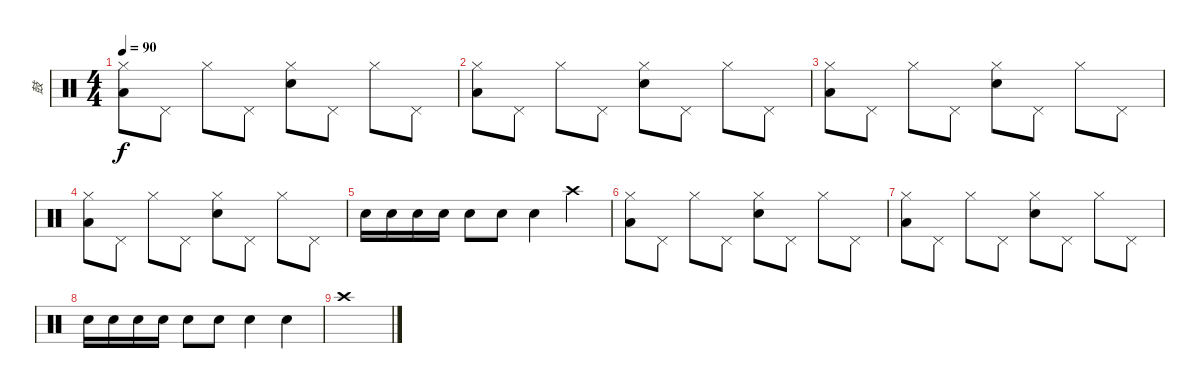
\track ("鼓" "鼓") {instrument percussion}
\staff {score}
\articulation defaults
\ts (4 4)
\tempo 90
\clef neutral
\ks c
("Hi-Hat (closed)" "Low Floor Tom (hit)").8{dy f} "Pedal Hi-Hat (hit)".8 "Hi-Hat (closed)".8 "Pedal Hi-Hat (hit)".8 ("Hi-Hat (closed)" "Electric Snare (hit)").8 "Pedal Hi-Hat (hit)".8 "Hi-Hat (closed)".8 "Pedal Hi-Hat (hit)".8 |
("Hi-Hat (closed)" "Low Floor Tom (hit)").8 "Pedal Hi-Hat (hit)".8 "Hi-Hat (closed)".8 "Pedal Hi-Hat (hit)".8 ("Hi-Hat (closed)" "Electric Snare (hit)").8 "Pedal Hi-Hat (hit)".8 "Hi-Hat (closed)".8 "Pedal Hi-Hat (hit)".8 |
("Hi-Hat (closed)" "Low Floor Tom (hit)").8 "Pedal Hi-Hat (hit)".8 "Hi-Hat (closed)".8 "Pedal Hi-Hat (hit)".8 ("Hi-Hat (closed)" "Electric Snare (hit)").8 "Pedal Hi-Hat (hit)".8 "Hi-Hat (closed)".8 "Pedal Hi-Hat (hit)".8 |
("Hi-Hat (closed)" "Low Floor Tom (hit)").8 "Pedal Hi-Hat (hit)".8 "Hi-Hat (closed)".8 "Pedal Hi-Hat (hit)".8 ("Hi-Hat (closed)" "Electric Snare (hit)").8 "Pedal Hi-Hat (hit)".8 "Hi-Hat (closed)".8 "Pedal Hi-Hat (hit)".8 |
"Electric Snare (hit)".16 "Electric Snare (hit)".16 "Electric Snare (hit)".16 "Electric Snare (hit)".16 "Electric Snare (hit)".8 "Electric Snare (hit)".8 "Electric Snare (hit)".4 "Crash high (hit)".4 |
("Hi-Hat (closed)" "Low Floor Tom (hit)").8 "Pedal Hi-Hat (hit)".8 "Hi-Hat (closed)".8 "Pedal Hi-Hat (hit)".8 ("Hi-Hat (closed)" "Electric Snare (hit)").8 "Pedal Hi-Hat (hit)".8 "Hi-Hat (closed)".8 "Pedal Hi-Hat (hit)".8 |
("Hi-Hat (closed)" "Low Floor Tom (hit)").8 "Pedal Hi-Hat (hit)".8 "Hi-Hat (closed)".8 "Pedal Hi-Hat (hit)".8 ("Hi-Hat (closed)" "Electric Snare (hit)").8 "Pedal Hi-Hat (hit)".8 "Hi-Hat (closed)".8 "Pedal Hi-Hat (hit)".8 |
"Electric Snare (hit)".16 "Electric Snare (hit)".16 "Electric Snare (hit)".16 "Electric Snare (hit)".16 "Electric Snare (hit)".8 "Electric Snare (hit)".8 "Electric Snare (hit)".4 "Electric Snare (hit)".4 |
"Crash high (hit)".1
